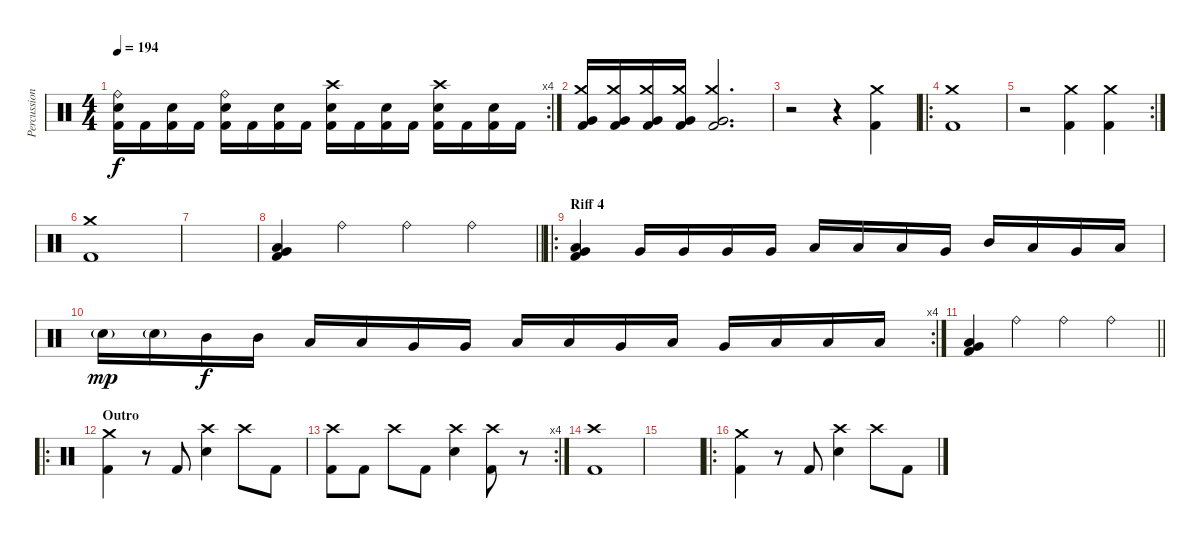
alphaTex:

\track ("Percussions" "Percussion") {instrument percussion}
\staff {score}
\articulation defaults
\rc 4
\ts (4 4)
\tempo 194
\clef neutral
\ks c
("Ride (bell)" "Electric Snare (hit)" "Kick (hit) 2").16{dy f} "Kick (hit) 2".16 ("Electric Snare (hit)" "Kick (hit) 2").16 "Kick (hit) 2".16 ("Ride (bell)" "Electric Snare (hit)" "Kick (hit) 2").16 "Kick (hit) 2".16 ("Electric Snare (hit)" "Kick (hit) 2").16 "Kick (hit) 2".16 ("Crash high (hit)" "Electric Snare (hit)" "Kick (hit) 2").16 "Kick (hit) 2".16 ("Electric Snare (hit)" "Kick (hit) 2").16 "Kick (hit) 2".16 ("Crash high (hit)" "Electric Snare (hit)" "Kick (hit) 2").16 "Kick (hit) 2".16 ("Electric Snare (hit)" "Kick (hit) 2").16 "Kick (hit) 2".16 |
("Crash medium (hit)" "Very Low Tom (hit)" "Kick (hit) 2").16 ("Crash medium (hit)" "Very Low Tom (hit)" "Kick (hit) 2").16 ("Crash medium (hit)" "Very Low Tom (hit)" "Kick (hit) 2").16 ("Crash medium (hit)" "Very Low Tom (hit)" "Kick (hit) 2").16 ("Crash medium (hit)" "Very Low Tom (hit)" "Kick (hit) 2").2{d} |
r.2 r.4 ("Crash medium (hit)" "Kick (hit) 2").4 |
\ro
("Crash medium (hit)" "Kick (hit) 2").1 |
\rc 2
r.2 ("Crash medium (hit)" "Kick (hit) 2").4 ("Crash medium (hit)" "Kick (hit) 2").4 |
("Crash medium (hit)" "Kick (hit) 2").1 |
|
\barLineRight lightlight
("Very Low Tom (hit)" "Low Tom (hit)" "Kick (hit) 2").4 "Ride (bell)".4 "Ride (bell)".4 "Ride (bell)".4 |
\ro
\section ("" "Riff 4")
("Very Low Tom (hit)" "Low Tom (hit)" "Kick (hit) 2").4 "Very Low Tom (hit)".16 "Very Low Tom (hit)".16 "Very Low Tom (hit)".16 "Very Low Tom (hit)".16 "Low Floor Tom (hit)".16 "Low Floor Tom (hit)".16 "Low Floor Tom (hit)".16 "Very Low Tom (hit)".16 "Mid Tom (hit)".16 "Low Tom (hit)".16 "Very Low Tom (hit)".16 "Low Floor Tom (hit)".16 |
\rc 4 "Electric Snare (hit)"{g}.16{dy mp} "Electric Snare (hit)"{g}.16 "Mid Tom (hit)".16{dy f} "Mid Tom (hit)".16 "Low Tom (hit)".16 "Low Tom (hit)".16 "Very Low Tom (hit)".16 "Very Low Tom (hit)".16 "Low Floor Tom (hit)".16 "Low Floor Tom (hit)".16 "Very Low Tom (hit)".16 "Low Floor Tom (hit)".16 "Very Low Tom (hit)".16 "Low Floor Tom (hit)".16 "Low Floor Tom (hit)".16 "Low Floor Tom (hit)".16
|
\barLineRight lightlight
("Very Low Tom (hit)" "Low Tom (hit)" "Kick (hit) 2").4 "Ride (bell)".4 "Ride (bell)".4 "Ride (bell)".4 |
\ro
\section ("" "Outro")
("Crash medium (hit)" "Kick (hit) 2").4 r.8 "Kick (hit) 2".8 ("Crash high (hit)" "Electric Snare (hit)").4 "Crash high (hit)".8 "Kick (hit) 2".8 |
\rc 4
("Crash high (hit)" "Kick (hit) 2").8 "Kick (hit) 2".8 "Crash high (hit)".8 "Kick (hit) 2".8 ("Crash high (hit)" "Electric Snare (hit)").4 ("Crash high (hit)" "Kick (hit) 2").8 r.8 |
("Crash high (hit)" "Kick (hit) 2").1 |
|
\ro
("Crash medium (hit)" "Kick (hit) 2").4 r.8 "Kick (hit) 2".8 ("Crash high (hit)" "Electric Snare (hit)").4 "Crash high (hit)".8 "Kick (hit) 2".8
